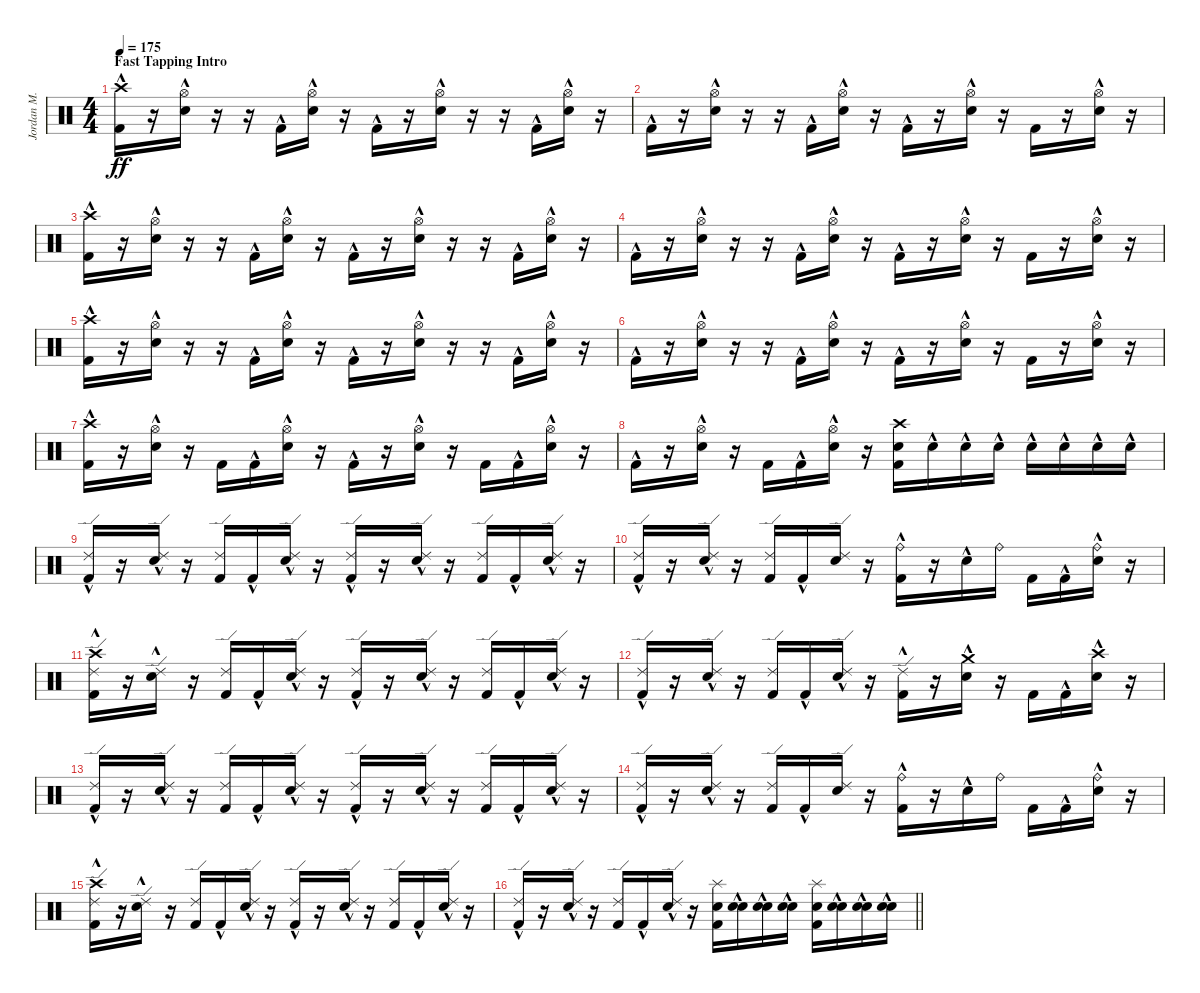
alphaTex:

\track ("Jordan M." "Jordan M.") {instrument percussion}
\staff {score}
\articulation defaults
\ts (4 4)
\section ("" "Fast Tapping Intro")
\tempo 175
\clef neutral
\ks c
("Crash high (hit)" "Kick (hit) 2"{hac}).16{dy ff} r.16 ("Hi-Hat (open)" "Electric Snare (hit)"{hac}).16 r.16 r.16 "Kick (hit) 2"{hac}.16 ("Hi-Hat (open)" "Electric Snare (hit)"{hac}).16 r.16 "Kick (hit) 2"{hac}.16 r.16 ("Hi-Hat (open)" "Electric Snare (hit)"{hac}).16 r.16 r.16 "Kick (hit) 2"{hac}.16 ("Hi-Hat (open)" "Electric Snare (hit)"{hac}).16 r.16 |
"Kick (hit) 2"{hac}.16 r.16 ("Hi-Hat (open)" "Electric Snare (hit)"{hac}).16 r.16 r.16 "Kick (hit) 2"{hac}.16 ("Hi-Hat (open)" "Electric Snare (hit)"{hac}).16 r.16 "Kick (hit) 2"{hac}.16 r.16 ("Hi-Hat (open)" "Electric Snare (hit)"{hac}).16 r.16 "Kick (hit) 2".16 r.16 ("Hi-Hat (open)" "Electric Snare (hit)"{hac}).16 r.16 |
("Crash high (hit)" "Kick (hit) 2"{hac}).16 r.16 ("Hi-Hat (open)" "Electric Snare (hit)"{hac}).16 r.16 r.16 "Kick (hit) 2"{hac}.16 ("Hi-Hat (open)" "Electric Snare (hit)"{hac}).16 r.16 "Kick (hit) 2"{hac}.16 r.16 ("Hi-Hat (open)" "Electric Snare (hit)"{hac}).16 r.16 r.16 "Kick (hit) 2"{hac}.16 ("Hi-Hat (open)" "Electric Snare (hit)"{hac}).16 r.16 |
"Kick (hit) 2"{hac}.16 r.16 ("Hi-Hat (open)" "Electric Snare (hit)"{hac}).16 r.16 r.16 "Kick (hit) 2"{hac}.16 ("Hi-Hat (open)" "Electric Snare (hit)"{hac}).16 r.16 "Kick (hit) 2"{hac}.16 r.16 ("Hi-Hat (open)" "Electric Snare (hit)"{hac}).16 r.16 "Kick (hit) 2".16 r.16 ("Hi-Hat (open)" "Electric Snare (hit)"{hac}).16 r.16 |
("Crash high (hit)" "Kick (hit) 2"{hac}).16 r.16 ("Hi-Hat (open)" "Electric Snare (hit)"{hac}).16 r.16 r.16 "Kick (hit) 2"{hac}.16 ("Hi-Hat (open)" "Electric Snare (hit)"{hac}).16 r.16 "Kick (hit) 2"{hac}.16 r.16 ("Hi-Hat (open)" "Electric Snare (hit)"{hac}).16 r.16 r.16 "Kick (hit) 2"{hac}.16 ("Hi-Hat (open)" "Electric Snare (hit)"{hac}).16 r.16 |
"Kick (hit) 2"{hac}.16 r.16 ("Hi-Hat (open)" "Electric Snare (hit)"{hac}).16 r.16 r.16 "Kick (hit) 2"{hac}.16 ("Hi-Hat (open)" "Electric Snare (hit)"{hac}).16 r.16 "Kick (hit) 2"{hac}.16 r.16 ("Hi-Hat (open)" "Electric Snare (hit)"{hac}).16 r.16 "Kick (hit) 2".16 r.16 ("Hi-Hat (open)" "Electric Snare (hit)"{hac}).16 r.16 |
("Crash high (hit)" "Kick (hit) 2"{hac}).16 r.16 ("Hi-Hat (open)" "Electric Snare (hit)"{hac}).16 r.16 "Kick (hit) 2".16 "Kick (hit) 2"{hac}.16 ("Hi-Hat (open)" "Electric Snare (hit)"{hac}).16 r.16 "Kick (hit) 2"{hac}.16 r.16 ("Hi-Hat (open)" "Electric Snare (hit)"{hac}).16 r.16 "Kick (hit) 2".16 "Kick (hit) 2"{hac}.16 ("Hi-Hat (open)" "Electric Snare (hit)"{hac}).16 r.16 |
"Kick (hit) 2"{hac}.16 r.16 ("Hi-Hat (open)" "Electric Snare (hit)"{hac}).16 r.16 "Kick (hit) 2".16 "Kick (hit) 2"{hac}.16 ("Hi-Hat (open)" "Electric Snare (hit)"{hac}).16 r.16 ("Electric Snare (hit)" "Crash high (hit)" "Kick (hit) 2").16 "Electric Snare (hit)"{hac}.16 "Electric Snare (hit)"{hac}.16 "Electric Snare (hit)"{hac}.16 "Electric Snare (hit)"{hac}.16 "Electric Snare (hit)"{hac}.16 "Electric Snare (hit)"{hac}.16 "Electric Snare (hit)"{hac}.16 |
("Ride (edge) 2" "Kick (hit) 2"{hac}).16 r.16 ("Ride (edge) 2" "Electric Snare (hit)"{hac}).16 r.16 ("Ride (edge) 2" "Kick (hit) 2").16 "Kick (hit) 2"{hac}.16 ("Ride (edge) 2" "Electric Snare (hit)"{hac}).16 r.16 ("Ride (edge) 2" "Kick (hit) 2"{hac}).16 r.16 ("Ride (edge) 2" "Electric Snare (hit)"{hac}).16 r.16 ("Ride (edge) 2" "Kick (hit) 2").16 "Kick (hit) 2"{hac}.16 ("Ride (edge) 2" "Electric Snare (hit)"{hac}).16 r.16 |
("Ride (edge) 2" "Kick (hit) 2"{hac}).16 r.16 ("Ride (edge) 2" "Electric Snare (hit)"{hac}).16 r.16 ("Ride (edge) 2" "Kick (hit) 2").16 "Kick (hit) 2"{hac}.16 ("Electric Snare (hit)" "Ride (edge) 2").16 r.16 ("Ride (bell)" "Kick (hit) 2"{hac}).16 r.16 "Electric Snare (hit)"{hac}.16 "Ride (bell)".16 "Kick (hit) 2".16 "Kick (hit) 2"{hac}.16 ("Ride (bell)" "Electric Snare (hit)"{hac}).16 r.16 |
("Crash high (hit)" "Ride (edge) 2" "Kick (hit) 2"{hac}).16 r.16 ("Ride (edge) 2" "Electric Snare (hit)"{hac}).16 r.16 ("Ride (edge) 2" "Kick (hit) 2").16 "Kick (hit) 2"{hac}.16 ("Ride (edge) 2" "Electric Snare (hit)"{hac}).16 r.16 ("Ride (edge) 2" "Kick (hit) 2"{hac}).16 r.16 ("Ride (edge) 2" "Electric Snare (hit)"{hac}).16 r.16 ("Ride (edge) 2" "Kick (hit) 2").16 "Kick (hit) 2"{hac}.16 ("Ride (edge) 2" "Electric Snare (hit)"{hac}).16 r.16 |
("Ride (edge) 2" "Kick (hit) 2"{hac}).16 r.16 ("Ride (edge) 2" "Electric Snare (hit)"{hac}).16 r.16 ("Ride (edge) 2" "Kick (hit) 2").16 "Kick (hit) 2"{hac}.16 ("Ride (edge) 2" "Electric Snare (hit)"{hac}).16 r.16 ("Ride (edge) 2" "Kick (hit) 2"{hac}).16 r.16 ("Crash medium (hit)" "Electric Snare (hit)"{hac}).16 r.16 "Kick (hit) 2".16 "Kick (hit) 2"{hac}.16 ("Crash high (hit)" "Electric Snare (hit)"{hac}).16 r.16 |
("Ride (edge) 2" "Kick (hit) 2"{hac}).16 r.16 ("Ride (edge) 2" "Electric Snare (hit)"{hac}).16 r.16 ("Ride (edge) 2" "Kick (hit) 2").16 "Kick (hit) 2"{hac}.16 ("Ride (edge) 2" "Electric Snare (hit)"{hac}).16 r.16 ("Ride (edge) 2" "Kick (hit) 2"{hac}).16 r.16 ("Ride (edge) 2" "Electric Snare (hit)"{hac}).16 r.16 ("Ride (edge) 2" "Kick (hit) 2").16 "Kick (hit) 2"{hac}.16 ("Ride (edge) 2" "Electric Snare (hit)"{hac}).16 r.16 |
("Ride (edge) 2" "Kick (hit) 2"{hac}).16 r.16 ("Ride (edge) 2" "Electric Snare (hit)"{hac}).16 r.16 ("Ride (edge) 2" "Kick (hit) 2").16 "Kick (hit) 2"{hac}.16 ("Electric Snare (hit)" "Ride (edge) 2").16 r.16 ("Ride (bell)" "Kick (hit) 2"{hac}).16 r.16 "Electric Snare (hit)"{hac}.16 "Ride (bell)".16 "Kick (hit) 2".16 "Kick (hit) 2"{hac}.16 ("Ride (bell)" "Electric Snare (hit)"{hac}).16 r.16 |
("Crash high (hit)" "Ride (edge) 2" "Kick (hit) 2"{hac}).16 r.16 ("Ride (edge) 2" "Electric Snare (hit)"{hac}).16 r.16 ("Ride (edge) 2" "Kick (hit) 2").16 "Kick (hit) 2"{hac}.16 ("Ride (edge) 2" "Electric Snare (hit)"{hac}).16 r.16 ("Ride (edge) 2" "Kick (hit) 2"{hac}).16 r.16 ("Ride (edge) 2" "Electric Snare (hit)"{hac}).16 r.16 ("Ride (edge) 2" "Kick (hit) 2").16 "Kick (hit) 2"{hac}.16 ("Ride (edge) 2" "Electric Snare (hit)"{hac}).16 r.16 |
\barLineRight lightlight
("Ride (edge) 2" "Kick (hit) 2"{hac}).16 r.16 ("Ride (edge) 2" "Electric Snare (hit)"{hac}).16 r.16 ("Ride (edge) 2" "Kick (hit) 2").16 "Kick (hit) 2"{hac}.16 ("Ride (edge) 2" "Electric Snare (hit)"{hac}).16 r.16 ("Splash (hit)" "Electric Snare (hit)" "Kick (hit) 2").16 ("Electric Snare (hit)"{hac} "Electric Snare (hit)"{hac}).16 ("Electric Snare (hit)"{hac} "Electric Snare (hit)"{hac}).16 ("Electric Snare (hit)"{hac} "Electric Snare (hit)"{hac}).16 ("Splash (hit)" "Electric Snare (hit)" "Kick (hit) 2").16 ("Electric Snare (hit)"{hac} "Electric Snare (hit)"{hac}).16 ("Electric Snare (hit)"{hac} "Electric Snare (hit)"{hac}).16 ("Electric Snare (hit)"{hac} "Electric Snare (hit)"{hac}).16
